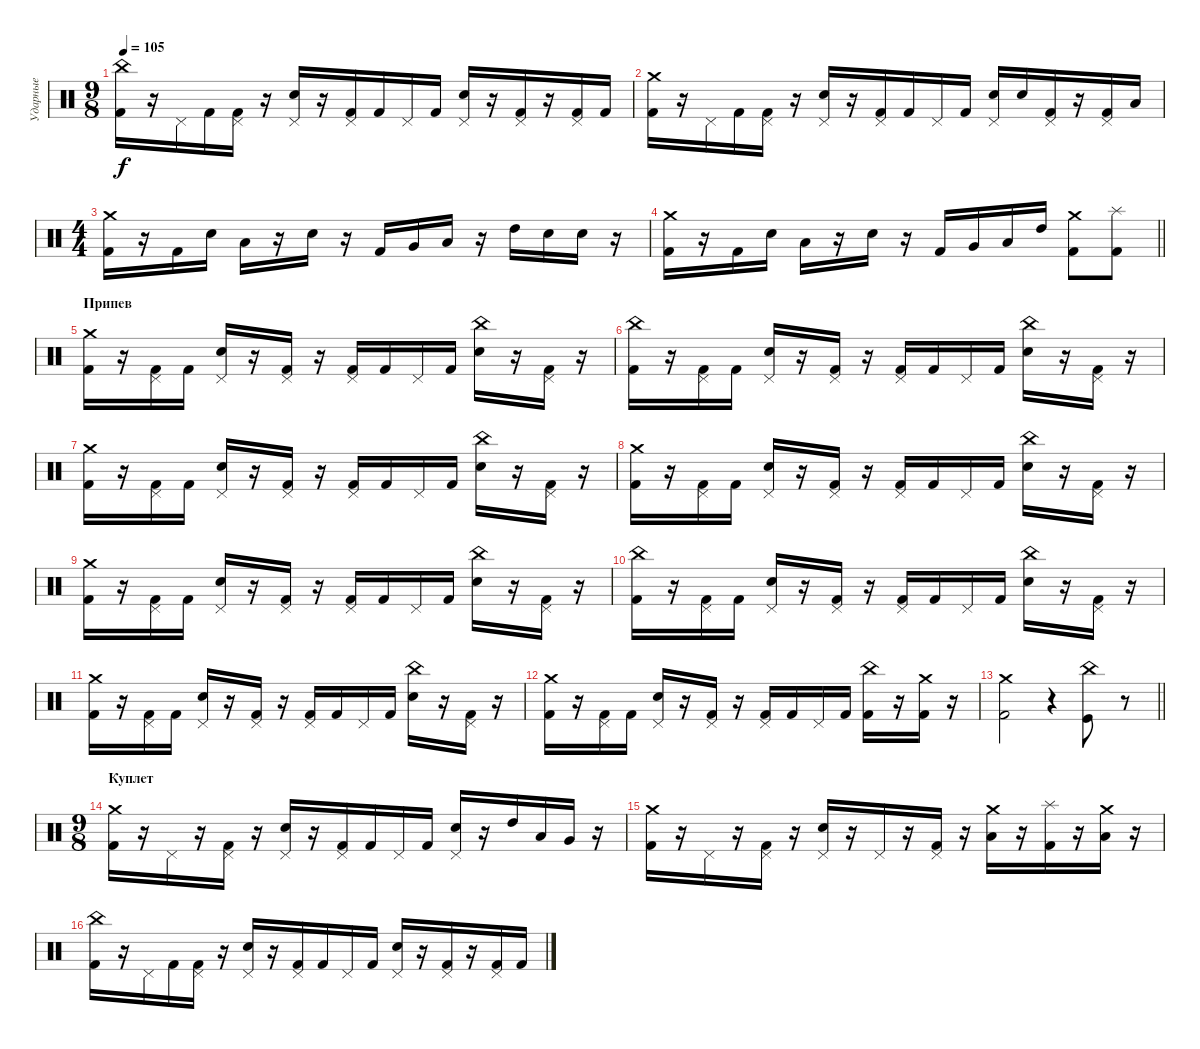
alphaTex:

\track ("Ударные" "Ударные") {instrument percussion}
\staff {score}
\articulation defaults
\ts (9 8)
\tempo 105
\clef neutral
\ks c
("Kick (hit) 2" "China (hit)").16{dy f} r.16 "Pedal Hi-Hat (hit)".16 "Kick (hit) 2".16 ("Kick (hit) 2" "Pedal Hi-Hat (hit)").16 r.16 ("Electric Snare (hit)" "Pedal Hi-Hat (hit)").16 r.16 ("Kick (hit) 2" "Pedal Hi-Hat (hit)").16 "Kick (hit) 2".16 "Pedal Hi-Hat (hit)".16 "Kick (hit) 2".16 ("Electric Snare (hit)" "Pedal Hi-Hat (hit)").16 r.16 ("Kick (hit) 2" "Pedal Hi-Hat (hit)").16 r.16 ("Kick (hit) 2" "Pedal Hi-Hat (hit)").16 "Kick (hit) 2".16 |
("Kick (hit) 2" "Crash medium (hit)").16 r.16 "Pedal Hi-Hat (hit)".16 "Kick (hit) 2".16 ("Kick (hit) 2" "Pedal Hi-Hat (hit)").16 r.16 ("Electric Snare (hit)" "Pedal Hi-Hat (hit)").16 r.16 ("Kick (hit) 2" "Pedal Hi-Hat (hit)").16 "Kick (hit) 2".16 "Pedal Hi-Hat (hit)".16 "Kick (hit) 2".16 ("Electric Snare (hit)" "Pedal Hi-Hat (hit)").16 "Electric Snare (hit)".16 ("Kick (hit) 2" "Pedal Hi-Hat (hit)").16 r.16 ("Kick (hit) 2" "Pedal Hi-Hat (hit)").16 "Low Tom (hit)".16 |
\ts (4 4)
("Crash medium (hit)" "Kick (hit) 2").16 r.16 "Kick (hit) 2".16 "Electric Snare (hit)".16 "Low Tom (hit)".16 r.16 "Electric Snare (hit)".16 r.16 "Kick (hit) 2".16 "Very Low Tom (hit)".16 "Low Tom (hit)".16 r.16 "High Tom (hit)".16 "Electric Snare (hit)".16 "Electric Snare (hit)".16 r.16 |
\barLineRight lightlight
("Crash medium (hit)" "Kick (hit) 2").16 r.16 "Kick (hit) 2".16 "Electric Snare (hit)".16 "Low Tom (hit)".16 r.16 "Electric Snare (hit)".16 r.16 "Kick (hit) 2".16 "Very Low Tom (hit)".16 "Low Tom (hit)".16 "High Tom (hit)".16 ("Crash medium (hit)" "Kick (hit) 2").8 ("Splash (hit)" "Kick (hit) 2").8 |
\section ("" "Припев")
("Crash medium (hit)" "Kick (hit) 2").16 r.16 ("Pedal Hi-Hat (hit)" "Kick (hit) 2").16 "Kick (hit) 2".16 ("Pedal Hi-Hat (hit)" "Electric Snare (hit)").16 r.16 ("Pedal Hi-Hat (hit)" "Kick (hit) 2").16 r.16 ("Pedal Hi-Hat (hit)" "Kick (hit) 2").16 "Kick (hit) 2".16 "Pedal Hi-Hat (hit)".16 "Kick (hit) 2".16 ("China (hit)" "Electric Snare (hit)").16 r.16 ("Pedal Hi-Hat (hit)" "Kick (hit) 2").16 r.16 |
("China (hit)" "Kick (hit) 2").16 r.16 ("Pedal Hi-Hat (hit)" "Kick (hit) 2").16 "Kick (hit) 2".16 ("Pedal Hi-Hat (hit)" "Electric Snare (hit)").16 r.16 ("Pedal Hi-Hat (hit)" "Kick (hit) 2").16 r.16 ("Pedal Hi-Hat (hit)" "Kick (hit) 2").16 "Kick (hit) 2".16 "Pedal Hi-Hat (hit)".16 "Kick (hit) 2".16 ("China (hit)" "Electric Snare (hit)").16 r.16 ("Pedal Hi-Hat (hit)" "Kick (hit) 2").16 r.16 |
("Crash medium (hit)" "Kick (hit) 2").16 r.16 ("Pedal Hi-Hat (hit)" "Kick (hit) 2").16 "Kick (hit) 2".16 ("Pedal Hi-Hat (hit)" "Electric Snare (hit)").16 r.16 ("Pedal Hi-Hat (hit)" "Kick (hit) 2").16 r.16 ("Pedal Hi-Hat (hit)" "Kick (hit) 2").16 "Kick (hit) 2".16 "Pedal Hi-Hat (hit)".16 "Kick (hit) 2".16 ("China (hit)" "Electric Snare (hit)").16 r.16 ("Pedal Hi-Hat (hit)" "Kick (hit) 2").16 r.16 |
("Crash medium (hit)" "Kick (hit) 2").16 r.16 ("Pedal Hi-Hat (hit)" "Kick (hit) 2").16 "Kick (hit) 2".16 ("Pedal Hi-Hat (hit)" "Electric Snare (hit)").16 r.16 ("Pedal Hi-Hat (hit)" "Kick (hit) 2").16 r.16 ("Pedal Hi-Hat (hit)" "Kick (hit) 2").16 "Kick (hit) 2".16 "Pedal Hi-Hat (hit)".16 "Kick (hit) 2".16 ("China (hit)" "Electric Snare (hit)").16 r.16 ("Pedal Hi-Hat (hit)" "Kick (hit) 2").16 r.16 |
("Crash medium (hit)" "Kick (hit) 2").16 r.16 ("Pedal Hi-Hat (hit)" "Kick (hit) 2").16 "Kick (hit) 2".16 ("Pedal Hi-Hat (hit)" "Electric Snare (hit)").16 r.16 ("Pedal Hi-Hat (hit)" "Kick (hit) 2").16 r.16 ("Pedal Hi-Hat (hit)" "Kick (hit) 2").16 "Kick (hit) 2".16 "Pedal Hi-Hat (hit)".16 "Kick (hit) 2".16 ("China (hit)" "Electric Snare (hit)").16 r.16 ("Pedal Hi-Hat (hit)" "Kick (hit) 2").16 r.16 |
("China (hit)" "Kick (hit) 2").16 r.16 ("Pedal Hi-Hat (hit)" "Kick (hit) 2").16 "Kick (hit) 2".16 ("Pedal Hi-Hat (hit)" "Electric Snare (hit)").16 r.16 ("Pedal Hi-Hat (hit)" "Kick (hit) 2").16 r.16 ("Pedal Hi-Hat (hit)" "Kick (hit) 2").16 "Kick (hit) 2".16 "Pedal Hi-Hat (hit)".16 "Kick (hit) 2".16 ("China (hit)" "Electric Snare (hit)").16 r.16 ("Pedal Hi-Hat (hit)" "Kick (hit) 2").16 r.16 |
("Crash medium (hit)" "Kick (hit) 2").16 r.16 ("Pedal Hi-Hat (hit)" "Kick (hit) 2").16 "Kick (hit) 2".16 ("Pedal Hi-Hat (hit)" "Electric Snare (hit)").16 r.16 ("Pedal Hi-Hat (hit)" "Kick (hit) 2").16 r.16 ("Pedal Hi-Hat (hit)" "Kick (hit) 2").16 "Kick (hit) 2".16 "Pedal Hi-Hat (hit)".16 "Kick (hit) 2".16 ("China (hit)" "Electric Snare (hit)").16 r.16 ("Pedal Hi-Hat (hit)" "Kick (hit) 2").16 r.16 |
("Crash medium (hit)" "Kick (hit) 2").16 r.16 ("Pedal Hi-Hat (hit)" "Kick (hit) 2").16 "Kick (hit) 2".16 ("Pedal Hi-Hat (hit)" "Electric Snare (hit)").16 r.16 ("Pedal Hi-Hat (hit)" "Kick (hit) 2").16 r.16 ("Pedal Hi-Hat (hit)" "Kick (hit) 2").16 "Kick (hit) 2".16 "Pedal Hi-Hat (hit)".16 "Kick (hit) 2".16 ("China (hit)" "Kick (hit) 2").16 r.16 ("Crash medium (hit)" "Kick (hit) 2").16 r.16 |
\barLineRight lightlight
("Crash medium (hit)" "Kick (hit) 2").2 r.4 ("China (hit)" "Kick (hit)").8 r.8 |
\ts (9 8)
\section ("" "Куплет")
("Crash medium (hit)" "Kick (hit) 2").16 r.16 "Pedal Hi-Hat (hit)".16 r.16 ("Kick (hit) 2" "Pedal Hi-Hat (hit)").16 r.16 ("Electric Snare (hit)" "Pedal Hi-Hat (hit)").16 r.16 ("Kick (hit) 2" "Pedal Hi-Hat (hit)").16 "Kick (hit) 2".16 "Pedal Hi-Hat (hit)".16 "Kick (hit) 2".16 ("Electric Snare (hit)" "Pedal Hi-Hat (hit)").16 r.16 "High Tom (hit)".16 "Low Tom (hit)".16 "Very Low Tom (hit)".16 r.16 |
("Crash medium (hit)" "Kick (hit) 2").16 r.16 "Pedal Hi-Hat (hit)".16 r.16 ("Kick (hit) 2" "Pedal Hi-Hat (hit)").16 r.16 ("Electric Snare (hit)" "Pedal Hi-Hat (hit)").16 r.16 "Pedal Hi-Hat (hit)".16 r.16 ("Kick (hit) 2" "Pedal Hi-Hat (hit)").16 r.16 ("Low Tom (hit)" "Crash medium (hit)").16 r.16 ("Kick (hit) 2" "Splash (hit)").16 r.16 ("Low Tom (hit)" "Crash medium (hit)").16 r.16 |
("Kick (hit) 2" "China (hit)").16 r.16 "Pedal Hi-Hat (hit)".16 "Kick (hit) 2".16 ("Kick (hit) 2" "Pedal Hi-Hat (hit)").16 r.16 ("Electric Snare (hit)" "Pedal Hi-Hat (hit)").16 r.16 ("Kick (hit) 2" "Pedal Hi-Hat (hit)").16 "Kick (hit) 2".16 "Pedal Hi-Hat (hit)".16 "Kick (hit) 2".16 ("Electric Snare (hit)" "Pedal Hi-Hat (hit)").16 r.16 ("Kick (hit) 2" "Pedal Hi-Hat (hit)").16 r.16 ("Kick (hit) 2" "Pedal Hi-Hat (hit)").16 "Kick (hit) 2".16
